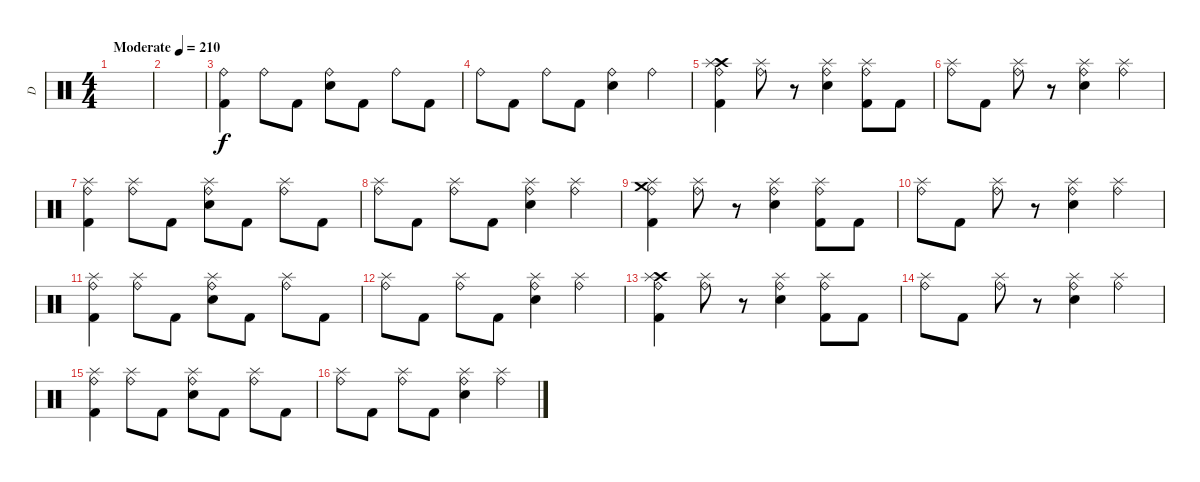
\track ("D" "D") {instrument percussion}
\staff {score}
\articulation defaults
\ts (4 4)
\tempo (210 "Moderate")
\clef neutral
\ks c
|
|
("Kick (hit) 2" "Ride (bell)").4{volume 12} "Ride (bell)".8 "Kick (hit) 2".8 ("Electric Snare (hit)" "Ride (bell)").8 "Kick (hit) 2".8 "Ride (bell)".8 "Kick (hit) 2".8 |
"Ride (bell)".8 "Kick (hit) 2".8 "Ride (bell)".8 "Kick (hit) 2".8 ("Electric Snare (hit)" "Ride (bell)").4 "Ride (bell)".4 |
("Crash high (hit)" "Kick (hit) 2" "Ride (bell)" "Splash (hit)").4 ("Ride (bell)" "Splash (hit)").8 r.8 ("Electric Snare (hit)" "Ride (bell)" "Splash (hit)").4 ("Kick (hit) 2" "Ride (bell)" "Splash (hit)").8 "Kick (hit) 2".8 |
("Ride (bell)" "Splash (hit)").8 "Kick (hit) 2".8 ("Ride (bell)" "Splash (hit)").8 r.8 ("Electric Snare (hit)" "Ride (bell)" "Splash (hit)").4 ("Ride (bell)" "Splash (hit)").4 |
("Kick (hit) 2" "Ride (bell)" "Splash (hit)").4 ("Ride (bell)" "Splash (hit)").8 "Kick (hit) 2".8 ("Electric Snare (hit)" "Ride (bell)" "Splash (hit)").8 "Kick (hit) 2".8 ("Ride (bell)" "Splash (hit)").8 "Kick (hit) 2".8 |
("Ride (bell)" "Splash (hit)").8 "Kick (hit) 2".8 ("Ride (bell)" "Splash (hit)").8 "Kick (hit) 2".8 ("Electric Snare (hit)" "Ride (bell)" "Splash (hit)").4 ("Ride (bell)" "Splash (hit)").4 |
("Crash medium (hit)" "Kick (hit) 2" "Ride (bell)" "Splash (hit)").4 ("Ride (bell)" "Splash (hit)").8 r.8 ("Electric Snare (hit)" "Ride (bell)" "Splash (hit)").4 ("Kick (hit) 2" "Ride (bell)" "Splash (hit)").8 "Kick (hit) 2".8 |
("Ride (bell)" "Splash (hit)").8 "Kick (hit) 2".8 ("Ride (bell)" "Splash (hit)").8 r.8 ("Electric Snare (hit)" "Ride (bell)" "Splash (hit)").4 ("Ride (bell)" "Splash (hit)").4 |
("Kick (hit) 2" "Ride (bell)" "Splash (hit)").4 ("Ride (bell)" "Splash (hit)").8 "Kick (hit) 2".8 ("Electric Snare (hit)" "Ride (bell)" "Splash (hit)").8 "Kick (hit) 2".8 ("Ride (bell)" "Splash (hit)").8 "Kick (hit) 2".8 |
("Ride (bell)" "Splash (hit)").8 "Kick (hit) 2".8 ("Ride (bell)" "Splash (hit)").8 "Kick (hit) 2".8 ("Electric Snare (hit)" "Ride (bell)" "Splash (hit)").4 ("Ride (bell)" "Splash (hit)").4 |
("Crash high (hit)" "Kick (hit) 2" "Ride (bell)" "Splash (hit)").4 ("Ride (bell)" "Splash (hit)").8 r.8 ("Electric Snare (hit)" "Ride (bell)" "Splash (hit)").4 ("Kick (hit) 2" "Ride (bell)" "Splash (hit)").8 "Kick (hit) 2".8 |
("Ride (bell)" "Splash (hit)").8 "Kick (hit) 2".8 ("Ride (bell)" "Splash (hit)").8 r.8 ("Electric Snare (hit)" "Ride (bell)" "Splash (hit)").4 ("Ride (bell)" "Splash (hit)").4 |
("Kick (hit) 2" "Ride (bell)" "Splash (hit)").4 ("Ride (bell)" "Splash (hit)").8 "Kick (hit) 2".8 ("Electric Snare (hit)" "Ride (bell)" "Splash (hit)").8 "Kick (hit) 2".8 ("Ride (bell)" "Splash (hit)").8 "Kick (hit) 2".8 |
("Ride (bell)" "Splash (hit)").8 "Kick (hit) 2".8 ("Ride (bell)" "Splash (hit)").8 "Kick (hit) 2".8 ("Electric Snare (hit)" "Ride (bell)" "Splash (hit)").4 ("Ride (bell)" "Splash (hit)").4
